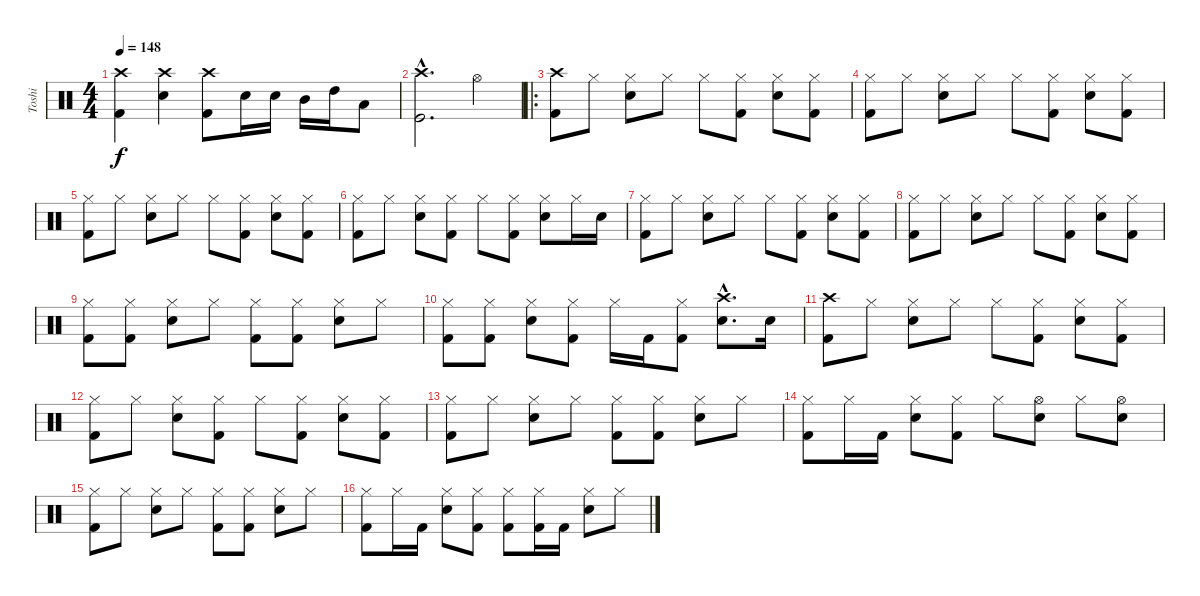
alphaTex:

\track ("Toshi" "Toshi") {instrument percussion}
\staff {score}
\articulation defaults
\ts (4 4)
\tempo 148
\clef neutral
\ks c
("Crash high (hit)" "Kick (hit) 2").4{dy f} ("Crash high (hit)" "Snare (hit) 2").4 ("Crash high (hit)" "Kick (hit) 2").8 "Snare (hit) 2".16 "Snare (hit) 2".16 "Mid Tom (hit)".16 "High Tom (hit)".16 "Low Floor Tom (hit)".8 |
("Crash high (hit)"{hac} "Kick (hit)"{hac}).2{d} "Hi-Hat (open)".4 |
\ro
("Crash high (hit)" "Kick (hit) 2").8 "Hi-Hat (closed)".8 ("Hi-Hat (closed)" "Snare (hit) 2").8 "Hi-Hat (closed)".8 "Hi-Hat (closed)".8 ("Hi-Hat (closed)" "Kick (hit) 2").8 ("Hi-Hat (closed)" "Snare (hit) 2").8 ("Hi-Hat (closed)" "Kick (hit) 2").8 |
("Hi-Hat (closed)" "Kick (hit) 2").8 "Hi-Hat (closed)".8 ("Hi-Hat (closed)" "Snare (hit) 2").8 "Hi-Hat (closed)".8 "Hi-Hat (closed)".8 ("Hi-Hat (closed)" "Kick (hit) 2").8 ("Hi-Hat (closed)" "Snare (hit) 2").8 ("Hi-Hat (closed)" "Kick (hit) 2").8 |
("Hi-Hat (closed)" "Kick (hit) 2").8 "Hi-Hat (closed)".8 ("Hi-Hat (closed)" "Snare (hit) 2").8 "Hi-Hat (closed)".8 "Hi-Hat (closed)".8 ("Hi-Hat (closed)" "Kick (hit) 2").8 ("Hi-Hat (closed)" "Snare (hit) 2").8 ("Hi-Hat (closed)" "Kick (hit) 2").8 |
("Hi-Hat (closed)" "Kick (hit) 2").8 "Hi-Hat (closed)".8 ("Hi-Hat (closed)" "Snare (hit) 2").8 ("Hi-Hat (closed)" "Kick (hit) 2").8 "Hi-Hat (closed)".8 ("Hi-Hat (closed)" "Kick (hit) 2").8 ("Hi-Hat (closed)" "Snare (hit) 2").8 "Hi-Hat (closed)".16 "Snare (hit) 2".16 |
("Hi-Hat (closed)" "Kick (hit) 2").8 "Hi-Hat (closed)".8 ("Hi-Hat (closed)" "Snare (hit) 2").8 "Hi-Hat (closed)".8 "Hi-Hat (closed)".8 ("Hi-Hat (closed)" "Kick (hit) 2").8 ("Hi-Hat (closed)" "Snare (hit) 2").8 ("Hi-Hat (closed)" "Kick (hit) 2").8 |
("Hi-Hat (closed)" "Kick (hit) 2").8 "Hi-Hat (closed)".8 ("Hi-Hat (closed)" "Snare (hit) 2").8 "Hi-Hat (closed)".8 "Hi-Hat (closed)".8 ("Hi-Hat (closed)" "Kick (hit) 2").8 ("Hi-Hat (closed)" "Snare (hit) 2").8 ("Hi-Hat (closed)" "Kick (hit) 2").8 |
("Hi-Hat (closed)" "Kick (hit) 2").8 ("Hi-Hat (closed)" "Kick (hit) 2").8 ("Hi-Hat (closed)" "Snare (hit) 2").8 "Hi-Hat (closed)".8 ("Hi-Hat (closed)" "Kick (hit) 2").8 ("Hi-Hat (closed)" "Kick (hit) 2").8 ("Hi-Hat (closed)" "Snare (hit) 2").8 "Hi-Hat (closed)".8 |
("Hi-Hat (closed)" "Kick (hit) 2").8 ("Hi-Hat (closed)" "Kick (hit) 2").8 ("Hi-Hat (closed)" "Snare (hit) 2").8 ("Hi-Hat (closed)" "Kick (hit) 2").8 "Hi-Hat (closed)".16 "Kick (hit) 2".16 ("Hi-Hat (closed)" "Kick (hit) 2").8 ("Crash high (hit)"{hac} "Snare (hit) 2"{hac}).8{d} "Snare (hit) 2".16 |
("Crash high (hit)" "Kick (hit) 2").8 "Hi-Hat (closed)".8 ("Hi-Hat (closed)" "Snare (hit) 2").8 "Hi-Hat (closed)".8 "Hi-Hat (closed)".8 ("Hi-Hat (closed)" "Kick (hit) 2").8 ("Hi-Hat (closed)" "Snare (hit) 2").8 ("Hi-Hat (closed)" "Kick (hit) 2").8 |
("Hi-Hat (closed)" "Kick (hit) 2").8 "Hi-Hat (closed)".8 ("Hi-Hat (closed)" "Snare (hit) 2").8 ("Hi-Hat (closed)" "Kick (hit) 2").8 "Hi-Hat (closed)".8 ("Hi-Hat (closed)" "Kick (hit) 2").8 ("Hi-Hat (closed)" "Snare (hit) 2").8 ("Hi-Hat (closed)" "Kick (hit) 2").8 |
("Hi-Hat (closed)" "Kick (hit) 2").8 "Hi-Hat (closed)".8 ("Hi-Hat (closed)" "Snare (hit) 2").8 "Hi-Hat (closed)".8 ("Hi-Hat (closed)" "Kick (hit) 2").8 ("Hi-Hat (closed)" "Kick (hit) 2").8 ("Hi-Hat (closed)" "Snare (hit) 2").8 "Hi-Hat (closed)".8 |
("Hi-Hat (closed)" "Kick (hit) 2").8 "Hi-Hat (closed)".16 "Kick (hit) 2".16 ("Hi-Hat (closed)" "Snare (hit) 2").8 ("Hi-Hat (closed)" "Kick (hit) 2").8 "Hi-Hat (closed)".8 ("Hi-Hat (open)" "Snare (hit) 2").8 "Hi-Hat (closed)".8 ("Hi-Hat (open)" "Snare (hit) 2").8 |
("Hi-Hat (closed)" "Kick (hit) 2").8 "Hi-Hat (closed)".8 ("Hi-Hat (closed)" "Snare (hit) 2").8 "Hi-Hat (closed)".8 ("Hi-Hat (closed)" "Kick (hit) 2").8 ("Hi-Hat (closed)" "Kick (hit) 2").8 ("Hi-Hat (closed)" "Snare (hit) 2").8 "Hi-Hat (closed)".8 |
("Hi-Hat (closed)" "Kick (hit) 2").8 "Hi-Hat (closed)".16 "Kick (hit) 2".16 ("Hi-Hat (closed)" "Snare (hit) 2").8 ("Hi-Hat (closed)" "Kick (hit) 2").8 ("Hi-Hat (closed)" "Kick (hit) 2").8 ("Hi-Hat (closed)" "Kick (hit) 2").16 "Kick (hit) 2".16 ("Hi-Hat (closed)" "Snare (hit) 2").8 "Hi-Hat (closed)".8
